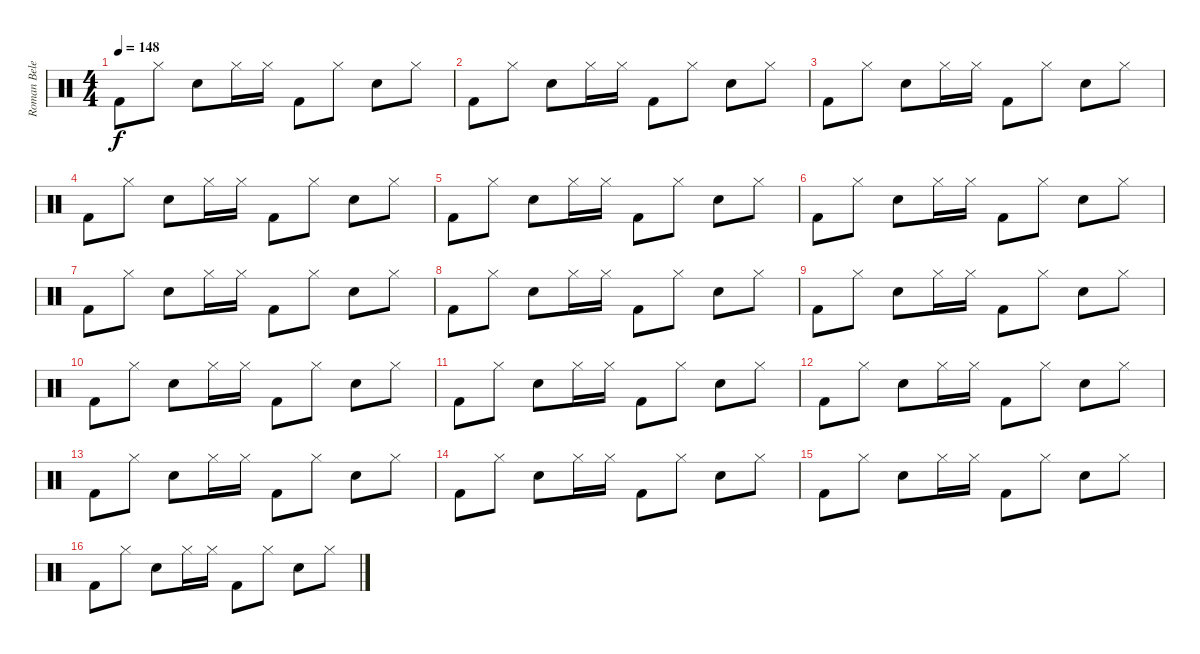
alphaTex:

\track ("Roman Belenkiy" "Roman Bele") {instrument percussion}
\staff {score}
\articulation defaults
\ts (4 4)
\tempo 148
\clef neutral
\ks c "Kick (hit) 2".8{dy f volume 10} "Hi-Hat (closed)".8 "Snare (hit) 2".8 "Hi-Hat (closed)".16 "Hi-Hat (closed)".16 "Kick (hit) 2".8 "Hi-Hat (closed)".8 "Snare (hit) 2".8 "Hi-Hat (closed)".8
|
"Kick (hit) 2".8 "Hi-Hat (closed)".8 "Snare (hit) 2".8 "Hi-Hat (closed)".16 "Hi-Hat (closed)".16 "Kick (hit) 2".8 "Hi-Hat (closed)".8 "Snare (hit) 2".8 "Hi-Hat (closed)".8 |
"Kick (hit) 2".8 "Hi-Hat (closed)".8 "Snare (hit) 2".8 "Hi-Hat (closed)".16 "Hi-Hat (closed)".16 "Kick (hit) 2".8 "Hi-Hat (closed)".8 "Snare (hit) 2".8 "Hi-Hat (closed)".8 |
"Kick (hit) 2".8 "Hi-Hat (closed)".8 "Snare (hit) 2".8 "Hi-Hat (closed)".16 "Hi-Hat (closed)".16 "Kick (hit) 2".8 "Hi-Hat (closed)".8 "Snare (hit) 2".8 "Hi-Hat (closed)".8 |
"Kick (hit) 2".8{volume 7} "Hi-Hat (closed)".8 "Snare (hit) 2".8 "Hi-Hat (closed)".16 "Hi-Hat (closed)".16 "Kick (hit) 2".8 "Hi-Hat (closed)".8 "Snare (hit) 2".8 "Hi-Hat (closed)".8 |
"Kick (hit) 2".8 "Hi-Hat (closed)".8 "Snare (hit) 2".8 "Hi-Hat (closed)".16 "Hi-Hat (closed)".16 "Kick (hit) 2".8 "Hi-Hat (closed)".8 "Snare (hit) 2".8 "Hi-Hat (closed)".8 |
"Kick (hit) 2".8 "Hi-Hat (closed)".8 "Snare (hit) 2".8 "Hi-Hat (closed)".16 "Hi-Hat (closed)".16 "Kick (hit) 2".8 "Hi-Hat (closed)".8 "Snare (hit) 2".8 "Hi-Hat (closed)".8 |
"Kick (hit) 2".8 "Hi-Hat (closed)".8 "Snare (hit) 2".8 "Hi-Hat (closed)".16 "Hi-Hat (closed)".16 "Kick (hit) 2".8 "Hi-Hat (closed)".8 "Snare (hit) 2".8 "Hi-Hat (closed)".8 |
"Kick (hit) 2".8{volume 4} "Hi-Hat (closed)".8 "Snare (hit) 2".8 "Hi-Hat (closed)".16 "Hi-Hat (closed)".16 "Kick (hit) 2".8 "Hi-Hat (closed)".8 "Snare (hit) 2".8 "Hi-Hat (closed)".8 |
"Kick (hit) 2".8 "Hi-Hat (closed)".8 "Snare (hit) 2".8 "Hi-Hat (closed)".16 "Hi-Hat (closed)".16 "Kick (hit) 2".8 "Hi-Hat (closed)".8 "Snare (hit) 2".8 "Hi-Hat (closed)".8 |
"Kick (hit) 2".8 "Hi-Hat (closed)".8 "Snare (hit) 2".8 "Hi-Hat (closed)".16 "Hi-Hat (closed)".16 "Kick (hit) 2".8 "Hi-Hat (closed)".8 "Snare (hit) 2".8 "Hi-Hat (closed)".8 |
"Kick (hit) 2".8 "Hi-Hat (closed)".8 "Snare (hit) 2".8 "Hi-Hat (closed)".16 "Hi-Hat (closed)".16 "Kick (hit) 2".8 "Hi-Hat (closed)".8 "Snare (hit) 2".8 "Hi-Hat (closed)".8 |
"Kick (hit) 2".8{volume 0} "Hi-Hat (closed)".8 "Snare (hit) 2".8 "Hi-Hat (closed)".16 "Hi-Hat (closed)".16 "Kick (hit) 2".8 "Hi-Hat (closed)".8 "Snare (hit) 2".8 "Hi-Hat (closed)".8 |
"Kick (hit) 2".8 "Hi-Hat (closed)".8 "Snare (hit) 2".8 "Hi-Hat (closed)".16 "Hi-Hat (closed)".16 "Kick (hit) 2".8 "Hi-Hat (closed)".8 "Snare (hit) 2".8 "Hi-Hat (closed)".8 |
"Kick (hit) 2".8 "Hi-Hat (closed)".8 "Snare (hit) 2".8 "Hi-Hat (closed)".16 "Hi-Hat (closed)".16 "Kick (hit) 2".8 "Hi-Hat (closed)".8 "Snare (hit) 2".8 "Hi-Hat (closed)".8 |
"Kick (hit) 2".8 "Hi-Hat (closed)".8 "Snare (hit) 2".8 "Hi-Hat (closed)".16 "Hi-Hat (closed)".16 "Kick (hit) 2".8 "Hi-Hat (closed)".8 "Snare (hit) 2".8 "Hi-Hat (closed)".8
